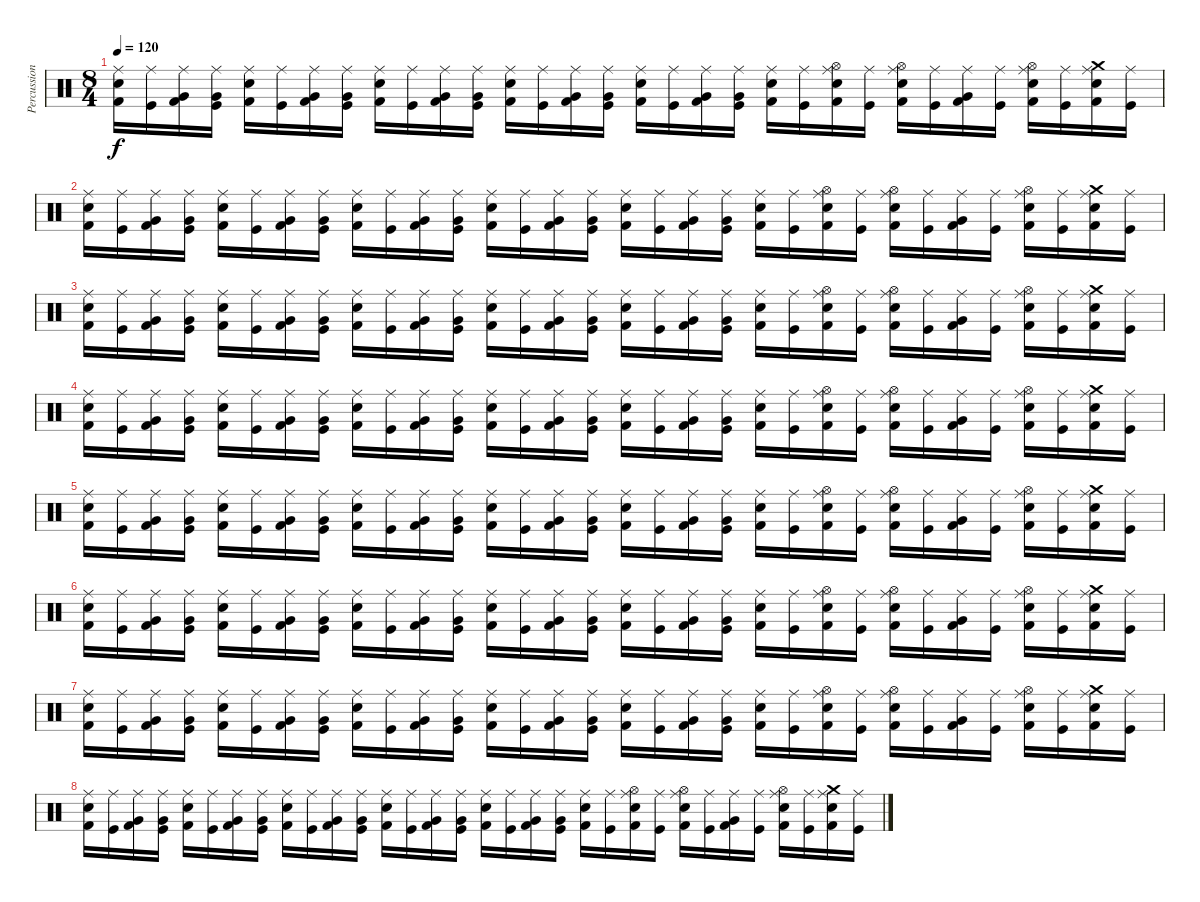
\track ("Percussions" "Percussion") {instrument percussion}
\staff {score}
\articulation defaults
\ts (8 4)
\tempo 120
\clef neutral
\ks c
("Kick (hit) 2" "Ride (middle)" "Electric Snare (hit)").16{dy f} ("Kick (hit)" "Ride (middle)").16 ("Kick (hit) 2" "Ride (middle)" "Very Low Tom (hit)").16 ("Kick (hit)" "Ride (middle)" "Very Low Tom (hit)").16 ("Kick (hit) 2" "Ride (middle)" "Electric Snare (hit)").16 ("Kick (hit)" "Ride (middle)").16 ("Kick (hit) 2" "Ride (middle)" "Very Low Tom (hit)").16 ("Kick (hit)" "Ride (middle)" "Very Low Tom (hit)").16 ("Kick (hit) 2" "Ride (middle)" "Electric Snare (hit)").16 ("Kick (hit)" "Ride (middle)").16 ("Kick (hit) 2" "Ride (middle)" "Very Low Tom (hit)").16 ("Kick (hit)" "Ride (middle)" "Very Low Tom (hit)").16 ("Kick (hit) 2" "Ride (middle)" "Electric Snare (hit)").16 ("Kick (hit)" "Ride (middle)").16 ("Kick (hit) 2" "Ride (middle)" "Very Low Tom (hit)").16 ("Kick (hit)" "Ride (middle)" "Very Low Tom (hit)").16 ("Kick (hit) 2" "Ride (middle)" "Electric Snare (hit)").16 ("Kick (hit)" "Ride (middle)").16 ("Kick (hit) 2" "Ride (middle)" "Very Low Tom (hit)").16 ("Kick (hit)" "Ride (middle)" "Very Low Tom (hit)").16 ("Kick (hit) 2" "Ride (middle)" "Electric Snare (hit)").16 ("Kick (hit)" "Ride (middle)").16 ("Kick (hit) 2" "Ride (middle)" "Hi-Hat (open)" "Electric Snare (hit)").16 ("Kick (hit)" "Ride (middle)").16 ("Kick (hit) 2" "Ride (middle)" "Electric Snare (hit)" "Hi-Hat (open)").16 ("Kick (hit)" "Ride (middle)").16 ("Kick (hit) 2" "Ride (middle)" "Very Low Tom (hit)").16 ("Kick (hit)" "Ride (middle)").16 ("Kick (hit) 2" "Ride (middle)" "Electric Snare (hit)" "Hi-Hat (open)").16 ("Kick (hit)" "Ride (middle)").16 ("Kick (hit) 2" "Ride (middle)" "Crash medium (hit)" "Electric Snare (hit)").16 ("Kick (hit)" "Ride (middle)").16 |
("Kick (hit) 2" "Ride (middle)" "Electric Snare (hit)").16 ("Kick (hit)" "Ride (middle)").16 ("Kick (hit) 2" "Ride (middle)" "Very Low Tom (hit)").16 ("Kick (hit)" "Ride (middle)" "Very Low Tom (hit)").16 ("Kick (hit) 2" "Ride (middle)" "Electric Snare (hit)").16 ("Kick (hit)" "Ride (middle)").16 ("Kick (hit) 2" "Ride (middle)" "Very Low Tom (hit)").16 ("Kick (hit)" "Ride (middle)" "Very Low Tom (hit)").16 ("Kick (hit) 2" "Ride (middle)" "Electric Snare (hit)").16 ("Kick (hit)" "Ride (middle)").16 ("Kick (hit) 2" "Ride (middle)" "Very Low Tom (hit)").16 ("Kick (hit)" "Ride (middle)" "Very Low Tom (hit)").16 ("Kick (hit) 2" "Ride (middle)" "Electric Snare (hit)").16 ("Kick (hit)" "Ride (middle)").16 ("Kick (hit) 2" "Ride (middle)" "Very Low Tom (hit)").16 ("Kick (hit)" "Ride (middle)" "Very Low Tom (hit)").16 ("Kick (hit) 2" "Ride (middle)" "Electric Snare (hit)").16 ("Kick (hit)" "Ride (middle)").16 ("Kick (hit) 2" "Ride (middle)" "Very Low Tom (hit)").16 ("Kick (hit)" "Ride (middle)" "Very Low Tom (hit)").16 ("Kick (hit) 2" "Ride (middle)" "Electric Snare (hit)").16 ("Kick (hit)" "Ride (middle)").16 ("Kick (hit) 2" "Ride (middle)" "Hi-Hat (open)" "Electric Snare (hit)").16 ("Kick (hit)" "Ride (middle)").16 ("Kick (hit) 2" "Ride (middle)" "Electric Snare (hit)" "Hi-Hat (open)").16 ("Kick (hit)" "Ride (middle)").16 ("Kick (hit) 2" "Ride (middle)" "Very Low Tom (hit)").16 ("Kick (hit)" "Ride (middle)").16 ("Kick (hit) 2" "Ride (middle)" "Electric Snare (hit)" "Hi-Hat (open)").16 ("Kick (hit)" "Ride (middle)").16 ("Kick (hit) 2" "Ride (middle)" "Crash medium (hit)" "Electric Snare (hit)").16 ("Kick (hit)" "Ride (middle)").16 |
("Kick (hit) 2" "Ride (middle)" "Electric Snare (hit)").16 ("Kick (hit)" "Ride (middle)").16 ("Kick (hit) 2" "Ride (middle)" "Very Low Tom (hit)").16 ("Kick (hit)" "Ride (middle)" "Very Low Tom (hit)").16 ("Kick (hit) 2" "Ride (middle)" "Electric Snare (hit)").16 ("Kick (hit)" "Ride (middle)").16 ("Kick (hit) 2" "Ride (middle)" "Very Low Tom (hit)").16 ("Kick (hit)" "Ride (middle)" "Very Low Tom (hit)").16 ("Kick (hit) 2" "Ride (middle)" "Electric Snare (hit)").16 ("Kick (hit)" "Ride (middle)").16 ("Kick (hit) 2" "Ride (middle)" "Very Low Tom (hit)").16 ("Kick (hit)" "Ride (middle)" "Very Low Tom (hit)").16 ("Kick (hit) 2" "Ride (middle)" "Electric Snare (hit)").16 ("Kick (hit)" "Ride (middle)").16 ("Kick (hit) 2" "Ride (middle)" "Very Low Tom (hit)").16 ("Kick (hit)" "Ride (middle)" "Very Low Tom (hit)").16 ("Kick (hit) 2" "Ride (middle)" "Electric Snare (hit)").16 ("Kick (hit)" "Ride (middle)").16 ("Kick (hit) 2" "Ride (middle)" "Very Low Tom (hit)").16 ("Kick (hit)" "Ride (middle)" "Very Low Tom (hit)").16 ("Kick (hit) 2" "Ride (middle)" "Electric Snare (hit)").16 ("Kick (hit)" "Ride (middle)").16 ("Kick (hit) 2" "Ride (middle)" "Hi-Hat (open)" "Electric Snare (hit)").16 ("Kick (hit)" "Ride (middle)").16 ("Kick (hit) 2" "Ride (middle)" "Electric Snare (hit)" "Hi-Hat (open)").16 ("Kick (hit)" "Ride (middle)").16 ("Kick (hit) 2" "Ride (middle)" "Very Low Tom (hit)").16 ("Kick (hit)" "Ride (middle)").16 ("Kick (hit) 2" "Ride (middle)" "Electric Snare (hit)" "Hi-Hat (open)").16 ("Kick (hit)" "Ride (middle)").16 ("Kick (hit) 2" "Ride (middle)" "Crash medium (hit)" "Electric Snare (hit)").16 ("Kick (hit)" "Ride (middle)").16 |
("Kick (hit) 2" "Ride (middle)" "Electric Snare (hit)").16 ("Kick (hit)" "Ride (middle)").16 ("Kick (hit) 2" "Ride (middle)" "Very Low Tom (hit)").16 ("Kick (hit)" "Ride (middle)" "Very Low Tom (hit)").16 ("Kick (hit) 2" "Ride (middle)" "Electric Snare (hit)").16 ("Kick (hit)" "Ride (middle)").16 ("Kick (hit) 2" "Ride (middle)" "Very Low Tom (hit)").16 ("Kick (hit)" "Ride (middle)" "Very Low Tom (hit)").16 ("Kick (hit) 2" "Ride (middle)" "Electric Snare (hit)").16 ("Kick (hit)" "Ride (middle)").16 ("Kick (hit) 2" "Ride (middle)" "Very Low Tom (hit)").16 ("Kick (hit)" "Ride (middle)" "Very Low Tom (hit)").16 ("Kick (hit) 2" "Ride (middle)" "Electric Snare (hit)").16 ("Kick (hit)" "Ride (middle)").16 ("Kick (hit) 2" "Ride (middle)" "Very Low Tom (hit)").16 ("Kick (hit)" "Ride (middle)" "Very Low Tom (hit)").16 ("Kick (hit) 2" "Ride (middle)" "Electric Snare (hit)").16 ("Kick (hit)" "Ride (middle)").16 ("Kick (hit) 2" "Ride (middle)" "Very Low Tom (hit)").16 ("Kick (hit)" "Ride (middle)" "Very Low Tom (hit)").16 ("Kick (hit) 2" "Ride (middle)" "Electric Snare (hit)").16 ("Kick (hit)" "Ride (middle)").16 ("Kick (hit) 2" "Ride (middle)" "Hi-Hat (open)" "Electric Snare (hit)").16 ("Kick (hit)" "Ride (middle)").16 ("Kick (hit) 2" "Ride (middle)" "Electric Snare (hit)" "Hi-Hat (open)").16 ("Kick (hit)" "Ride (middle)").16 ("Kick (hit) 2" "Ride (middle)" "Very Low Tom (hit)").16 ("Kick (hit)" "Ride (middle)").16 ("Kick (hit) 2" "Ride (middle)" "Electric Snare (hit)" "Hi-Hat (open)").16 ("Kick (hit)" "Ride (middle)").16 ("Kick (hit) 2" "Ride (middle)" "Crash medium (hit)" "Electric Snare (hit)").16 ("Kick (hit)" "Ride (middle)").16 |
("Kick (hit) 2" "Ride (middle)" "Electric Snare (hit)").16 ("Kick (hit)" "Ride (middle)").16 ("Kick (hit) 2" "Ride (middle)" "Very Low Tom (hit)").16 ("Kick (hit)" "Ride (middle)" "Very Low Tom (hit)").16 ("Kick (hit) 2" "Ride (middle)" "Electric Snare (hit)").16 ("Kick (hit)" "Ride (middle)").16 ("Kick (hit) 2" "Ride (middle)" "Very Low Tom (hit)").16 ("Kick (hit)" "Ride (middle)" "Very Low Tom (hit)").16 ("Kick (hit) 2" "Ride (middle)" "Electric Snare (hit)").16 ("Kick (hit)" "Ride (middle)").16 ("Kick (hit) 2" "Ride (middle)" "Very Low Tom (hit)").16 ("Kick (hit)" "Ride (middle)" "Very Low Tom (hit)").16 ("Kick (hit) 2" "Ride (middle)" "Electric Snare (hit)").16 ("Kick (hit)" "Ride (middle)").16 ("Kick (hit) 2" "Ride (middle)" "Very Low Tom (hit)").16 ("Kick (hit)" "Ride (middle)" "Very Low Tom (hit)").16 ("Kick (hit) 2" "Ride (middle)" "Electric Snare (hit)").16 ("Kick (hit)" "Ride (middle)").16 ("Kick (hit) 2" "Ride (middle)" "Very Low Tom (hit)").16 ("Kick (hit)" "Ride (middle)" "Very Low Tom (hit)").16 ("Kick (hit) 2" "Ride (middle)" "Electric Snare (hit)").16 ("Kick (hit)" "Ride (middle)").16 ("Kick (hit) 2" "Ride (middle)" "Hi-Hat (open)" "Electric Snare (hit)").16 ("Kick (hit)" "Ride (middle)").16 ("Kick (hit) 2" "Ride (middle)" "Electric Snare (hit)" "Hi-Hat (open)").16 ("Kick (hit)" "Ride (middle)").16 ("Kick (hit) 2" "Ride (middle)" "Very Low Tom (hit)").16 ("Kick (hit)" "Ride (middle)").16 ("Kick (hit) 2" "Ride (middle)" "Electric Snare (hit)" "Hi-Hat (open)").16 ("Kick (hit)" "Ride (middle)").16 ("Kick (hit) 2" "Ride (middle)" "Crash medium (hit)" "Electric Snare (hit)").16 ("Kick (hit)" "Ride (middle)").16 |
("Kick (hit) 2" "Ride (middle)" "Electric Snare (hit)").16 ("Kick (hit)" "Ride (middle)").16 ("Kick (hit) 2" "Ride (middle)" "Very Low Tom (hit)").16 ("Kick (hit)" "Ride (middle)" "Very Low Tom (hit)").16 ("Kick (hit) 2" "Ride (middle)" "Electric Snare (hit)").16 ("Kick (hit)" "Ride (middle)").16 ("Kick (hit) 2" "Ride (middle)" "Very Low Tom (hit)").16 ("Kick (hit)" "Ride (middle)" "Very Low Tom (hit)").16 ("Kick (hit) 2" "Ride (middle)" "Electric Snare (hit)").16 ("Kick (hit)" "Ride (middle)").16 ("Kick (hit) 2" "Ride (middle)" "Very Low Tom (hit)").16 ("Kick (hit)" "Ride (middle)" "Very Low Tom (hit)").16 ("Kick (hit) 2" "Ride (middle)" "Electric Snare (hit)").16 ("Kick (hit)" "Ride (middle)").16 ("Kick (hit) 2" "Ride (middle)" "Very Low Tom (hit)").16 ("Kick (hit)" "Ride (middle)" "Very Low Tom (hit)").16 ("Kick (hit) 2" "Ride (middle)" "Electric Snare (hit)").16 ("Kick (hit)" "Ride (middle)").16 ("Kick (hit) 2" "Ride (middle)" "Very Low Tom (hit)").16 ("Kick (hit)" "Ride (middle)" "Very Low Tom (hit)").16 ("Kick (hit) 2" "Ride (middle)" "Electric Snare (hit)").16 ("Kick (hit)" "Ride (middle)").16 ("Kick (hit) 2" "Ride (middle)" "Hi-Hat (open)" "Electric Snare (hit)").16 ("Kick (hit)" "Ride (middle)").16 ("Kick (hit) 2" "Ride (middle)" "Electric Snare (hit)" "Hi-Hat (open)").16 ("Kick (hit)" "Ride (middle)").16 ("Kick (hit) 2" "Ride (middle)" "Very Low Tom (hit)").16 ("Kick (hit)" "Ride (middle)").16 ("Kick (hit) 2" "Ride (middle)" "Electric Snare (hit)" "Hi-Hat (open)").16 ("Kick (hit)" "Ride (middle)").16 ("Kick (hit) 2" "Ride (middle)" "Crash medium (hit)" "Electric Snare (hit)").16 ("Kick (hit)" "Ride (middle)").16 |
("Kick (hit) 2" "Ride (middle)" "Electric Snare (hit)").16 ("Kick (hit)" "Ride (middle)").16 ("Kick (hit) 2" "Ride (middle)" "Very Low Tom (hit)").16 ("Kick (hit)" "Ride (middle)" "Very Low Tom (hit)").16 ("Kick (hit) 2" "Ride (middle)" "Electric Snare (hit)").16 ("Kick (hit)" "Ride (middle)").16 ("Kick (hit) 2" "Ride (middle)" "Very Low Tom (hit)").16 ("Kick (hit)" "Ride (middle)" "Very Low Tom (hit)").16 ("Kick (hit) 2" "Ride (middle)" "Electric Snare (hit)").16 ("Kick (hit)" "Ride (middle)").16 ("Kick (hit) 2" "Ride (middle)" "Very Low Tom (hit)").16 ("Kick (hit)" "Ride (middle)" "Very Low Tom (hit)").16 ("Kick (hit) 2" "Ride (middle)" "Electric Snare (hit)").16 ("Kick (hit)" "Ride (middle)").16 ("Kick (hit) 2" "Ride (middle)" "Very Low Tom (hit)").16 ("Kick (hit)" "Ride (middle)" "Very Low Tom (hit)").16 ("Kick (hit) 2" "Ride (middle)" "Electric Snare (hit)").16 ("Kick (hit)" "Ride (middle)").16 ("Kick (hit) 2" "Ride (middle)" "Very Low Tom (hit)").16 ("Kick (hit)" "Ride (middle)" "Very Low Tom (hit)").16 ("Kick (hit) 2" "Ride (middle)" "Electric Snare (hit)").16 ("Kick (hit)" "Ride (middle)").16 ("Kick (hit) 2" "Ride (middle)" "Hi-Hat (open)" "Electric Snare (hit)").16 ("Kick (hit)" "Ride (middle)").16 ("Kick (hit) 2" "Ride (middle)" "Electric Snare (hit)" "Hi-Hat (open)").16 ("Kick (hit)" "Ride (middle)").16 ("Kick (hit) 2" "Ride (middle)" "Very Low Tom (hit)").16 ("Kick (hit)" "Ride (middle)").16 ("Kick (hit) 2" "Ride (middle)" "Electric Snare (hit)" "Hi-Hat (open)").16 ("Kick (hit)" "Ride (middle)").16 ("Kick (hit) 2" "Ride (middle)" "Crash medium (hit)" "Electric Snare (hit)").16 ("Kick (hit)" "Ride (middle)").16 |
("Kick (hit) 2" "Ride (middle)" "Electric Snare (hit)").16 ("Kick (hit)" "Ride (middle)").16 ("Kick (hit) 2" "Ride (middle)" "Very Low Tom (hit)").16 ("Kick (hit)" "Ride (middle)" "Very Low Tom (hit)").16 ("Kick (hit) 2" "Ride (middle)" "Electric Snare (hit)").16 ("Kick (hit)" "Ride (middle)").16 ("Kick (hit) 2" "Ride (middle)" "Very Low Tom (hit)").16 ("Kick (hit)" "Ride (middle)" "Very Low Tom (hit)").16 ("Kick (hit) 2" "Ride (middle)" "Electric Snare (hit)").16 ("Kick (hit)" "Ride (middle)").16 ("Kick (hit) 2" "Ride (middle)" "Very Low Tom (hit)").16 ("Kick (hit)" "Ride (middle)" "Very Low Tom (hit)").16 ("Kick (hit) 2" "Ride (middle)" "Electric Snare (hit)").16 ("Kick (hit)" "Ride (middle)").16 ("Kick (hit) 2" "Ride (middle)" "Very Low Tom (hit)").16 ("Kick (hit)" "Ride (middle)" "Very Low Tom (hit)").16 ("Kick (hit) 2" "Ride (middle)" "Electric Snare (hit)").16 ("Kick (hit)" "Ride (middle)").16 ("Kick (hit) 2" "Ride (middle)" "Very Low Tom (hit)").16 ("Kick (hit)" "Ride (middle)" "Very Low Tom (hit)").16 ("Kick (hit) 2" "Ride (middle)" "Electric Snare (hit)").16 ("Kick (hit)" "Ride (middle)").16 ("Kick (hit) 2" "Ride (middle)" "Hi-Hat (open)" "Electric Snare (hit)").16 ("Kick (hit)" "Ride (middle)").16 ("Kick (hit) 2" "Ride (middle)" "Electric Snare (hit)" "Hi-Hat (open)").16 ("Kick (hit)" "Ride (middle)").16 ("Kick (hit) 2" "Ride (middle)" "Very Low Tom (hit)").16 ("Kick (hit)" "Ride (middle)").16 ("Kick (hit) 2" "Ride (middle)" "Electric Snare (hit)" "Hi-Hat (open)").16 ("Kick (hit)" "Ride (middle)").16 ("Kick (hit) 2" "Ride (middle)" "Crash medium (hit)" "Electric Snare (hit)").16 ("Kick (hit)" "Ride (middle)").16
